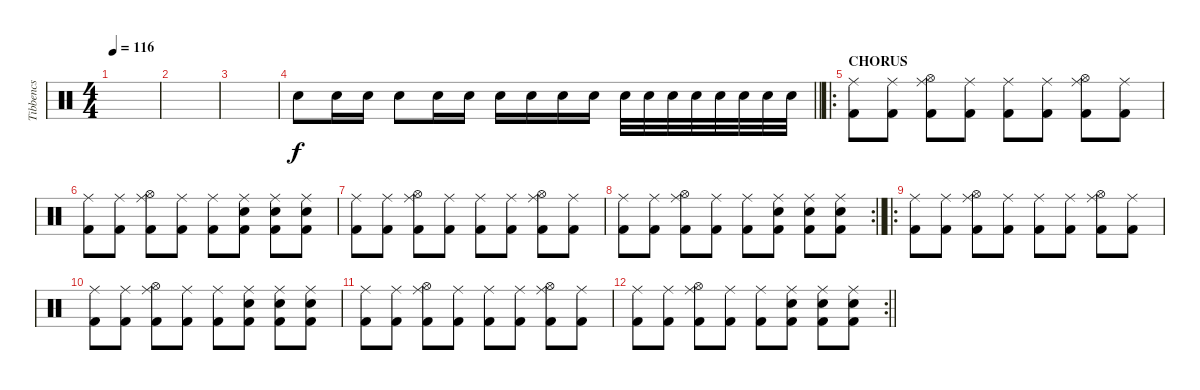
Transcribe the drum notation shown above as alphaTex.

\track ("Tibbencs" "Tibbencs") {instrument percussion}
\staff {score}
\articulation defaults
\ts (4 4)
\tempo 116
\clef neutral
\ks c
|
|
|
\barLineRight lightlight "Snare (hit) 2".8 "Snare (hit) 2".16 "Snare (hit) 2".16 "Snare (hit) 2".8 "Snare (hit) 2".16 "Snare (hit) 2".16 "Snare (hit) 2".16 "Snare (hit) 2".16 "Snare (hit) 2".16 "Snare (hit) 2".16 "Snare (hit) 2".32 "Snare (hit) 2".32 "Snare (hit) 2".32 "Snare (hit) 2".32 "Snare (hit) 2".32 "Snare (hit) 2".32 "Snare (hit) 2".32 "Snare (hit) 2".32
|
\ro
\section ("" "CHORUS")
("Kick (hit) 2" "Ride (middle)").8 ("Kick (hit) 2" "Ride (middle)").8 ("Kick (hit) 2" "Hi-Hat (open)" "Ride (middle)").8 ("Kick (hit) 2" "Ride (middle)").8 ("Kick (hit) 2" "Ride (middle)").8 ("Kick (hit) 2" "Ride (middle)").8 ("Kick (hit) 2" "Hi-Hat (open)" "Ride (middle)").8 ("Kick (hit) 2" "Ride (middle)").8 |
("Kick (hit) 2" "Ride (middle)").8 ("Kick (hit) 2" "Ride (middle)").8 ("Kick (hit) 2" "Hi-Hat (open)" "Ride (middle)").8 ("Kick (hit) 2" "Ride (middle)").8 ("Kick (hit) 2" "Ride (middle)").8 ("Kick (hit) 2" "Ride (middle)" "Snare (hit) 2").8 ("Kick (hit) 2" "Ride (middle)" "Snare (hit) 2").8 ("Kick (hit) 2" "Ride (middle)" "Snare (hit) 2").8 |
("Kick (hit) 2" "Ride (middle)").8 ("Kick (hit) 2" "Ride (middle)").8 ("Kick (hit) 2" "Hi-Hat (open)" "Ride (middle)").8 ("Kick (hit) 2" "Ride (middle)").8 ("Kick (hit) 2" "Ride (middle)").8 ("Kick (hit) 2" "Ride (middle)").8 ("Kick (hit) 2" "Hi-Hat (open)" "Ride (middle)").8 ("Kick (hit) 2" "Ride (middle)").8 |
\rc 2
\barLineRight lightlight
("Kick (hit) 2" "Ride (middle)").8 ("Kick (hit) 2" "Ride (middle)").8 ("Kick (hit) 2" "Hi-Hat (open)" "Ride (middle)").8 ("Kick (hit) 2" "Ride (middle)").8 ("Kick (hit) 2" "Ride (middle)").8 ("Kick (hit) 2" "Ride (middle)" "Snare (hit) 2").8 ("Kick (hit) 2" "Ride (middle)" "Snare (hit) 2").8 ("Kick (hit) 2" "Ride (middle)" "Snare (hit) 2").8 |
\ro
("Kick (hit) 2" "Ride (middle)").8 ("Kick (hit) 2" "Ride (middle)").8 ("Kick (hit) 2" "Hi-Hat (open)" "Ride (middle)").8 ("Kick (hit) 2" "Ride (middle)").8 ("Kick (hit) 2" "Ride (middle)").8 ("Kick (hit) 2" "Ride (middle)").8 ("Kick (hit) 2" "Hi-Hat (open)" "Ride (middle)").8 ("Kick (hit) 2" "Ride (middle)").8 |
("Kick (hit) 2" "Ride (middle)").8 ("Kick (hit) 2" "Ride (middle)").8 ("Kick (hit) 2" "Hi-Hat (open)" "Ride (middle)").8 ("Kick (hit) 2" "Ride (middle)").8 ("Kick (hit) 2" "Ride (middle)").8 ("Kick (hit) 2" "Ride (middle)" "Snare (hit) 2").8 ("Kick (hit) 2" "Ride (middle)" "Snare (hit) 2").8 ("Kick (hit) 2" "Ride (middle)" "Snare (hit) 2").8 |
("Kick (hit) 2" "Ride (middle)").8 ("Kick (hit) 2" "Ride (middle)").8 ("Kick (hit) 2" "Hi-Hat (open)" "Ride (middle)").8 ("Kick (hit) 2" "Ride (middle)").8 ("Kick (hit) 2" "Ride (middle)").8 ("Kick (hit) 2" "Ride (middle)").8 ("Kick (hit) 2" "Hi-Hat (open)" "Ride (middle)").8 ("Kick (hit) 2" "Ride (middle)").8 |
\rc 2
\barLineRight lightlight
("Kick (hit) 2" "Ride (middle)").8 ("Kick (hit) 2" "Ride (middle)").8 ("Kick (hit) 2" "Hi-Hat (open)" "Ride (middle)").8 ("Kick (hit) 2" "Ride (middle)").8 ("Kick (hit) 2" "Ride (middle)").8 ("Kick (hit) 2" "Ride (middle)" "Snare (hit) 2").8 ("Kick (hit) 2" "Ride (middle)" "Snare (hit) 2").8 ("Kick (hit) 2" "Ride (middle)" "Snare (hit) 2").8
